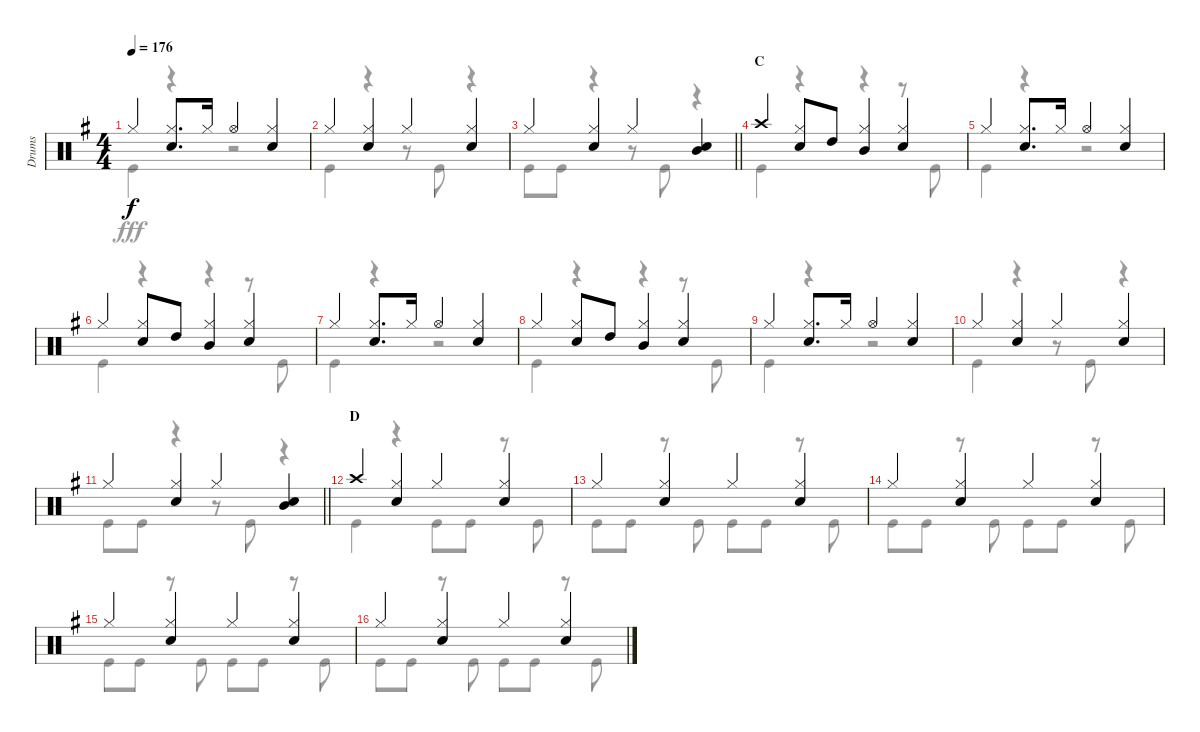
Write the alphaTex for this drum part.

\track ("Drums" "Drums") {instrument percussion}
\staff {score}
\articulation defaults
\voice
\ts (4 4)
\tempo 176
\clef neutral
\ks g "Hi-Hat (closed)".4{dy f}
("Hi-Hat (closed)" "Snare (hit) 2").8{d} "Hi-Hat (closed)".16 "Hi-Hat (open)".4 ("Hi-Hat (closed)" "Snare (hit) 2").4 |
"Hi-Hat (closed)".4 ("Hi-Hat (closed)" "Snare (hit) 2").4 "Hi-Hat (closed)".4 ("Hi-Hat (closed)" "Snare (hit) 2").4 |
\barLineRight lightlight "Hi-Hat (closed)".4
("Hi-Hat (closed)" "Snare (hit) 2").4 "Hi-Hat (closed)".4 ("Mid Tom (hit)" "Snare (hit) 2").4 |
\section ("" "C")
"Crash high (hit)".4 ("Hi-Hat (closed)" "Snare (hit) 2").8 "High Tom (hit)".8 ("Hi-Hat (closed)" "Mid Tom (hit)").4 ("Hi-Hat (closed)" "Snare (hit) 2").4 |
"Hi-Hat (closed)".4 ("Hi-Hat (closed)" "Snare (hit) 2").8{d} "Hi-Hat (closed)".16 "Hi-Hat (open)".4 ("Hi-Hat (closed)" "Snare (hit) 2").4 |
"Hi-Hat (closed)".4 ("Hi-Hat (closed)" "Snare (hit) 2").8 "High Tom (hit)".8 ("Hi-Hat (closed)" "Mid Tom (hit)").4 ("Hi-Hat (closed)" "Snare (hit) 2").4 |
"Hi-Hat (closed)".4 ("Hi-Hat (closed)" "Snare (hit) 2").8{d} "Hi-Hat (closed)".16 "Hi-Hat (open)".4 ("Hi-Hat (closed)" "Snare (hit) 2").4 |
"Hi-Hat (closed)".4 ("Hi-Hat (closed)" "Snare (hit) 2").8 "High Tom (hit)".8 ("Hi-Hat (closed)" "Mid Tom (hit)").4 ("Hi-Hat (closed)" "Snare (hit) 2").4 |
"Hi-Hat (closed)".4 ("Hi-Hat (closed)" "Snare (hit) 2").8{d} "Hi-Hat (closed)".16 "Hi-Hat (open)".4 ("Hi-Hat (closed)" "Snare (hit) 2").4 |
"Hi-Hat (closed)".4 ("Hi-Hat (closed)" "Snare (hit) 2").4 "Hi-Hat (closed)".4 ("Hi-Hat (closed)" "Snare (hit) 2").4 |
\barLineRight lightlight "Hi-Hat (closed)".4
("Hi-Hat (closed)" "Snare (hit) 2").4 "Hi-Hat (closed)".4 ("Mid Tom (hit)" "Snare (hit) 2").4 |
\section ("" "D")
"Crash high (hit)".4 ("Hi-Hat (closed)" "Snare (hit) 2").4 "Hi-Hat (closed)".4 ("Hi-Hat (closed)" "Snare (hit) 2").4 |
"Hi-Hat (closed)".4 ("Hi-Hat (closed)" "Snare (hit) 2").4 "Hi-Hat (closed)".4 ("Hi-Hat (closed)" "Snare (hit) 2").4 |
"Hi-Hat (closed)".4 ("Hi-Hat (closed)" "Snare (hit) 2").4 "Hi-Hat (closed)".4 ("Hi-Hat (closed)" "Snare (hit) 2").4 |
"Hi-Hat (closed)".4 ("Hi-Hat (closed)" "Snare (hit) 2").4 "Hi-Hat (closed)".4 ("Hi-Hat (closed)" "Snare (hit) 2").4 |
"Hi-Hat (closed)".4 ("Hi-Hat (closed)" "Snare (hit) 2").4 "Hi-Hat (closed)".4 ("Hi-Hat (closed)" "Snare (hit) 2").4
\voice
\clef neutral
\ottava regular
\simile none
\ks g "Kick (hit)".4{dy fff}
r.4 r.2 |
"Kick (hit)".4 r.4 r.8 "Kick (hit)".8 r.4 |
\barLineRight lightlight "Kick (hit)".8 "Kick (hit)".8
r.4 r.8 "Kick (hit)".8 r.4 |
"Kick (hit)".4 r.4 r.4 r.8 "Kick (hit)".8 |
"Kick (hit)".4 r.4 r.2 |
"Kick (hit)".4 r.4 r.4 r.8 "Kick (hit)".8 |
"Kick (hit)".4 r.4 r.2 |
"Kick (hit)".4 r.4 r.4 r.8 "Kick (hit)".8 |
"Kick (hit)".4 r.4 r.2 |
"Kick (hit)".4 r.4 r.8 "Kick (hit)".8 r.4 |
\barLineRight lightlight "Kick (hit)".8 "Kick (hit)".8
r.4 r.8 "Kick (hit)".8 r.4 |
"Kick (hit)".4 r.4 "Kick (hit)".8 "Kick (hit)".8 r.8 "Kick (hit)".8 |
"Kick (hit)".8 "Kick (hit)".8 r.8 "Kick (hit)".8 "Kick (hit)".8 "Kick (hit)".8 r.8 "Kick (hit)".8 |
"Kick (hit)".8 "Kick (hit)".8 r.8 "Kick (hit)".8 "Kick (hit)".8 "Kick (hit)".8 r.8 "Kick (hit)".8 |
"Kick (hit)".8 "Kick (hit)".8 r.8 "Kick (hit)".8 "Kick (hit)".8 "Kick (hit)".8 r.8 "Kick (hit)".8 |
"Kick (hit)".8 "Kick (hit)".8 r.8 "Kick (hit)".8 "Kick (hit)".8 "Kick (hit)".8 r.8 "Kick (hit)".8
